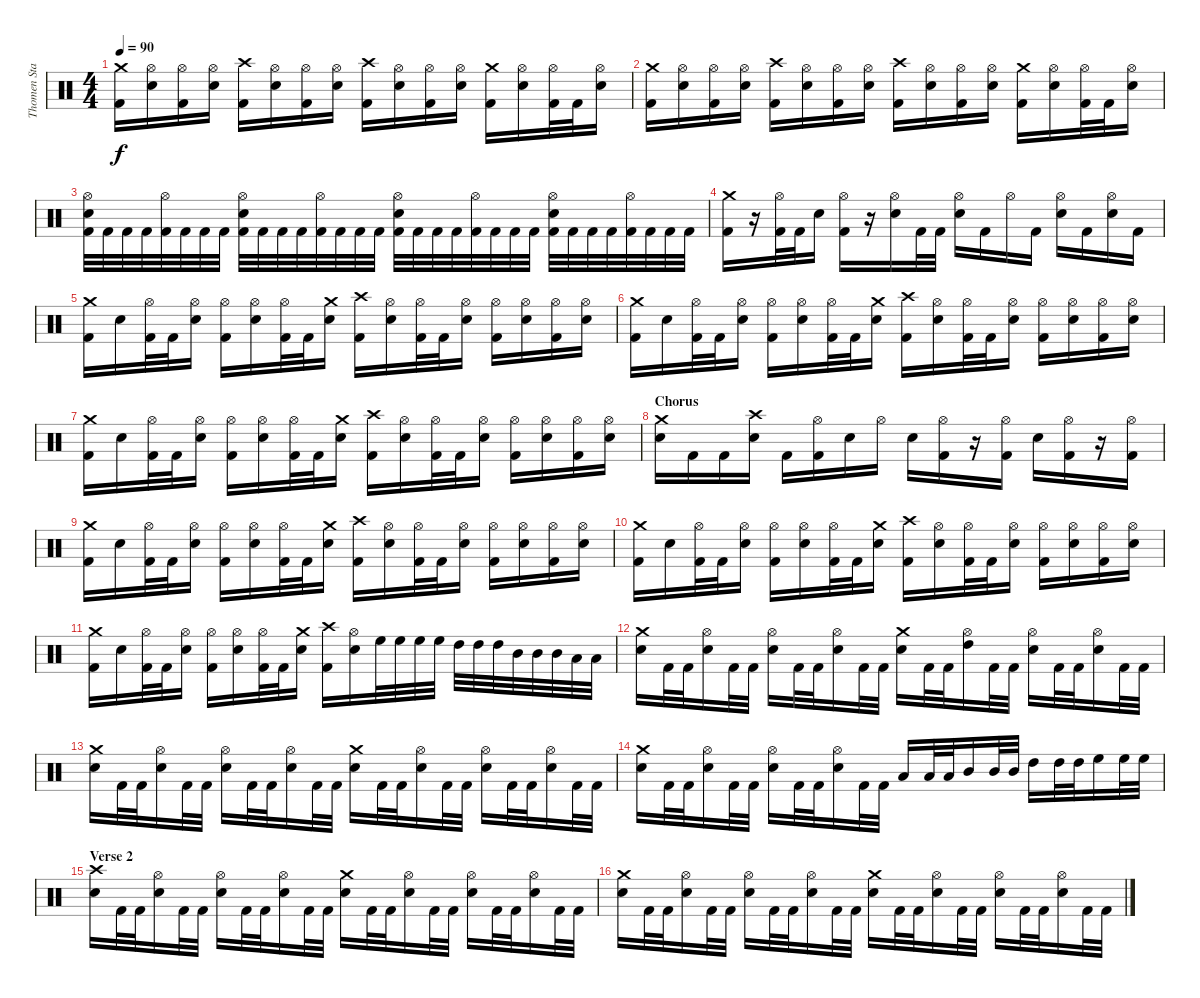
\track ("Thomen Stauch" "Thomen Sta") {instrument percussion}
\staff {score}
\articulation defaults
\ts (4 4)
\tempo 90
\clef neutral
\ks c
("Kick (hit) 2" "Crash medium (hit)").16{dy f} ("Snare (hit) 2" "Hi-Hat (open)").16 ("Kick (hit) 2" "Hi-Hat (open)").16 ("Snare (hit) 2" "Hi-Hat (open)").16 ("Kick (hit) 2" "Crash high (hit)").16 ("Snare (hit) 2" "Hi-Hat (open)").16 ("Kick (hit) 2" "Hi-Hat (open)").16 ("Snare (hit) 2" "Hi-Hat (open)").16 ("Kick (hit) 2" "Crash high (hit)").16 ("Snare (hit) 2" "Hi-Hat (open)").16 ("Kick (hit) 2" "Hi-Hat (open)").16 ("Snare (hit) 2" "Hi-Hat (open)").16 ("Kick (hit) 2" "Crash medium (hit)").16 ("Snare (hit) 2" "Hi-Hat (open)").16 ("Kick (hit) 2" "Hi-Hat (open)").32 "Kick (hit) 2".32 ("Snare (hit) 2" "Hi-Hat (open)").16 |
("Kick (hit) 2" "Crash medium (hit)").16 ("Snare (hit) 2" "Hi-Hat (open)").16 ("Kick (hit) 2" "Hi-Hat (open)").16 ("Snare (hit) 2" "Hi-Hat (open)").16 ("Kick (hit) 2" "Crash high (hit)").16 ("Snare (hit) 2" "Hi-Hat (open)").16 ("Kick (hit) 2" "Hi-Hat (open)").16 ("Snare (hit) 2" "Hi-Hat (open)").16 ("Kick (hit) 2" "Crash high (hit)").16 ("Snare (hit) 2" "Hi-Hat (open)").16 ("Kick (hit) 2" "Hi-Hat (open)").16 ("Snare (hit) 2" "Hi-Hat (open)").16 ("Kick (hit) 2" "Crash medium (hit)").16 ("Snare (hit) 2" "Hi-Hat (open)").16 ("Kick (hit) 2" "Hi-Hat (open)").32 "Kick (hit) 2".32 ("Snare (hit) 2" "Hi-Hat (open)").16 |
("Kick (hit) 2" "Snare (hit) 2" "Hi-Hat (open)").32 "Kick (hit) 2".32 "Kick (hit) 2".32 "Kick (hit) 2".32 ("Kick (hit) 2" "Hi-Hat (open)").32 "Kick (hit) 2".32 "Kick (hit) 2".32 "Kick (hit) 2".32 ("Kick (hit) 2" "Snare (hit) 2" "Hi-Hat (open)").32 "Kick (hit) 2".32 "Kick (hit) 2".32 "Kick (hit) 2".32 ("Kick (hit) 2" "Hi-Hat (open)").32 "Kick (hit) 2".32 "Kick (hit) 2".32 "Kick (hit) 2".32 ("Kick (hit) 2" "Snare (hit) 2" "Hi-Hat (open)").32 "Kick (hit) 2".32 "Kick (hit) 2".32 "Kick (hit) 2".32 ("Kick (hit) 2" "Hi-Hat (open)").32 "Kick (hit) 2".32 "Kick (hit) 2".32 "Kick (hit) 2".32 ("Kick (hit) 2" "Snare (hit) 2" "Hi-Hat (open)").32 "Kick (hit) 2".32 "Kick (hit) 2".32 "Kick (hit) 2".32 ("Kick (hit) 2" "Hi-Hat (open)").32 "Kick (hit) 2".32 "Kick (hit) 2".32 "Kick (hit) 2".32 |
("Kick (hit) 2" "Crash medium (hit)").16 r.16 ("Kick (hit) 2" "Hi-Hat (open)").32 "Kick (hit) 2".32 "Snare (hit) 2".16 ("Kick (hit) 2" "Hi-Hat (open)").16 r.16 ("Snare (hit) 2" "Hi-Hat (open)").16 "Kick (hit) 2".32 "Kick (hit) 2".32 ("Snare (hit) 2" "Hi-Hat (open)").16 "Kick (hit) 2".16 "Hi-Hat (open)".16 "Kick (hit) 2".16 ("Snare (hit) 2" "Hi-Hat (open)").16 "Kick (hit) 2".16 ("Snare (hit) 2" "Hi-Hat (open)").16 "Kick (hit) 2".16 |
("Kick (hit) 2" "Crash medium (hit)").16 "Snare (hit) 2".16 ("Kick (hit) 2" "Hi-Hat (open)").32 "Kick (hit) 2".32 ("Snare (hit) 2" "Hi-Hat (open)").16 ("Kick (hit) 2" "Hi-Hat (open)").16 ("Snare (hit) 2" "Hi-Hat (open)").16 ("Kick (hit) 2" "Hi-Hat (open)").32 "Kick (hit) 2".32 ("Snare (hit) 2" "Crash medium (hit)").16 ("Kick (hit) 2" "Crash high (hit)").16 ("Snare (hit) 2" "Hi-Hat (open)").16 ("Kick (hit) 2" "Hi-Hat (open)").32 "Kick (hit) 2".32 ("Snare (hit) 2" "Hi-Hat (open)").16 ("Kick (hit) 2" "Hi-Hat (open)").16 ("Snare (hit) 2" "Hi-Hat (open)").16 ("Kick (hit) 2" "Hi-Hat (open)").16 ("Snare (hit) 2" "Hi-Hat (open)").16 |
("Kick (hit) 2" "Crash medium (hit)").16 "Snare (hit) 2".16 ("Kick (hit) 2" "Hi-Hat (open)").32 "Kick (hit) 2".32 ("Snare (hit) 2" "Hi-Hat (open)").16 ("Kick (hit) 2" "Hi-Hat (open)").16 ("Snare (hit) 2" "Hi-Hat (open)").16 ("Kick (hit) 2" "Hi-Hat (open)").32 "Kick (hit) 2".32 ("Snare (hit) 2" "Crash medium (hit)").16 ("Kick (hit) 2" "Crash high (hit)").16 ("Snare (hit) 2" "Hi-Hat (open)").16 ("Kick (hit) 2" "Hi-Hat (open)").32 "Kick (hit) 2".32 ("Snare (hit) 2" "Hi-Hat (open)").16 ("Kick (hit) 2" "Hi-Hat (open)").16 ("Snare (hit) 2" "Hi-Hat (open)").16 ("Kick (hit) 2" "Hi-Hat (open)").16 ("Snare (hit) 2" "Hi-Hat (open)").16 |
("Kick (hit) 2" "Crash medium (hit)").16 "Snare (hit) 2".16 ("Kick (hit) 2" "Hi-Hat (open)").32 "Kick (hit) 2".32 ("Snare (hit) 2" "Hi-Hat (open)").16 ("Kick (hit) 2" "Hi-Hat (open)").16 ("Snare (hit) 2" "Hi-Hat (open)").16 ("Kick (hit) 2" "Hi-Hat (open)").32 "Kick (hit) 2".32 ("Snare (hit) 2" "Crash medium (hit)").16 ("Kick (hit) 2" "Crash high (hit)").16 ("Snare (hit) 2" "Hi-Hat (open)").16 ("Kick (hit) 2" "Hi-Hat (open)").32 "Kick (hit) 2".32 ("Snare (hit) 2" "Hi-Hat (open)").16 ("Kick (hit) 2" "Hi-Hat (open)").16 ("Snare (hit) 2" "Hi-Hat (open)").16 ("Kick (hit) 2" "Hi-Hat (open)").16 ("Snare (hit) 2" "Hi-Hat (open)").16 |
\section ("" "Chorus")
("Snare (hit) 2" "Crash medium (hit)").16 "Kick (hit) 2".16 "Kick (hit) 2".16 ("Snare (hit) 2" "Crash high (hit)").16 "Kick (hit) 2".16 ("Kick (hit) 2" "Hi-Hat (open)").16 "Snare (hit) 2".16 "Hi-Hat (open)".16 "Snare (hit) 2".16 ("Kick (hit) 2" "Hi-Hat (open)").16 r.16 ("Kick (hit) 2" "Hi-Hat (open)").16 "Snare (hit) 2".16 ("Kick (hit) 2" "Hi-Hat (open)").16 r.16 ("Kick (hit) 2" "Hi-Hat (open)").16 |
("Kick (hit) 2" "Crash medium (hit)").16 "Snare (hit) 2".16 ("Kick (hit) 2" "Hi-Hat (open)").32 "Kick (hit) 2".32 ("Snare (hit) 2" "Hi-Hat (open)").16 ("Kick (hit) 2" "Hi-Hat (open)").16 ("Snare (hit) 2" "Hi-Hat (open)").16 ("Kick (hit) 2" "Hi-Hat (open)").32 "Kick (hit) 2".32 ("Snare (hit) 2" "Crash medium (hit)").16 ("Kick (hit) 2" "Crash high (hit)").16 ("Snare (hit) 2" "Hi-Hat (open)").16 ("Kick (hit) 2" "Hi-Hat (open)").32 "Kick (hit) 2".32 ("Snare (hit) 2" "Hi-Hat (open)").16 ("Kick (hit) 2" "Hi-Hat (open)").16 ("Snare (hit) 2" "Hi-Hat (open)").16 ("Kick (hit) 2" "Hi-Hat (open)").16 ("Snare (hit) 2" "Hi-Hat (open)").16 |
("Kick (hit) 2" "Crash medium (hit)").16 "Snare (hit) 2".16 ("Kick (hit) 2" "Hi-Hat (open)").32 "Kick (hit) 2".32 ("Snare (hit) 2" "Hi-Hat (open)").16 ("Kick (hit) 2" "Hi-Hat (open)").16 ("Snare (hit) 2" "Hi-Hat (open)").16 ("Kick (hit) 2" "Hi-Hat (open)").32 "Kick (hit) 2".32 ("Snare (hit) 2" "Crash medium (hit)").16 ("Kick (hit) 2" "Crash high (hit)").16 ("Snare (hit) 2" "Hi-Hat (open)").16 ("Kick (hit) 2" "Hi-Hat (open)").32 "Kick (hit) 2".32 ("Snare (hit) 2" "Hi-Hat (open)").16 ("Kick (hit) 2" "Hi-Hat (open)").16 ("Snare (hit) 2" "Hi-Hat (open)").16 ("Kick (hit) 2" "Hi-Hat (open)").16 ("Snare (hit) 2" "Hi-Hat (open)").16 |
("Kick (hit) 2" "Crash medium (hit)").16 "Snare (hit) 2".16 ("Kick (hit) 2" "Hi-Hat (open)").32 "Kick (hit) 2".32 ("Snare (hit) 2" "Hi-Hat (open)").16 ("Kick (hit) 2" "Hi-Hat (open)").16 ("Snare (hit) 2" "Hi-Hat (open)").16 ("Kick (hit) 2" "Hi-Hat (open)").32 "Kick (hit) 2".32 ("Snare (hit) 2" "Crash medium (hit)").16 ("Kick (hit) 2" "Crash high (hit)").16 ("Snare (hit) 2" "Hi-Hat (open)").16 "High Floor Tom (hit)".32 "High Floor Tom (hit)".32 "High Floor Tom (hit)".32 "High Floor Tom (hit)".32 "High Tom (hit)".32 "High Tom (hit)".32 "High Tom (hit)".32 "Mid Tom (hit)".32 "Mid Tom (hit)".32 "Mid Tom (hit)".32 "Low Tom (hit)".32 "Low Tom (hit)".32 |
("Snare (hit) 2" "Crash medium (hit)").16 "Kick (hit) 2".32 "Kick (hit) 2".32 ("Snare (hit) 2" "Hi-Hat (open)").16 "Kick (hit) 2".32 "Kick (hit) 2".32 ("Snare (hit) 2" "Hi-Hat (open)").16 "Kick (hit) 2".32 "Kick (hit) 2".32 ("Snare (hit) 2" "Hi-Hat (open)").16 "Kick (hit) 2".32 "Kick (hit) 2".32 ("Snare (hit) 2" "Crash medium (hit)").16 "Kick (hit) 2".32 "Kick (hit) 2".32 ("High Tom (hit)" "Hi-Hat (open)").16 "Kick (hit) 2".32 "Kick (hit) 2".32 ("Snare (hit) 2" "Hi-Hat (open)").16 "Kick (hit) 2".32 "Kick (hit) 2".32 ("Snare (hit) 2" "Hi-Hat (open)").16 "Kick (hit) 2".32 "Kick (hit) 2".32 |
("Snare (hit) 2" "Crash medium (hit)").16 "Kick (hit) 2".32 "Kick (hit) 2".32 ("Snare (hit) 2" "Hi-Hat (open)").16 "Kick (hit) 2".32 "Kick (hit) 2".32 ("Snare (hit) 2" "Hi-Hat (open)").16 "Kick (hit) 2".32 "Kick (hit) 2".32 ("Snare (hit) 2" "Hi-Hat (open)").16 "Kick (hit) 2".32 "Kick (hit) 2".32 ("Snare (hit) 2" "Crash medium (hit)").16 "Kick (hit) 2".32 "Kick (hit) 2".32 ("Snare (hit) 2" "Hi-Hat (open)").16 "Kick (hit) 2".32 "Kick (hit) 2".32 ("Snare (hit) 2" "Hi-Hat (open)").16 "Kick (hit) 2".32 "Kick (hit) 2".32 ("Snare (hit) 2" "Hi-Hat (open)").16 "Kick (hit) 2".32 "Kick (hit) 2".32 |
("Snare (hit) 2" "Crash medium (hit)").16 "Kick (hit) 2".32 "Kick (hit) 2".32 ("Snare (hit) 2" "Hi-Hat (open)").16 "Kick (hit) 2".32 "Kick (hit) 2".32 ("Snare (hit) 2" "Hi-Hat (open)").16 "Kick (hit) 2".32 "Kick (hit) 2".32 ("Snare (hit) 2" "Hi-Hat (open)").16 "Kick (hit) 2".32 "Kick (hit) 2".32 "Low Tom (hit)".16 "Low Tom (hit)".32 "Low Tom (hit)".32 "Mid Tom (hit)".16 "Mid Tom (hit)".32 "Mid Tom (hit)".32 "High Tom (hit)".16 "High Tom (hit)".32 "High Tom (hit)".32 "High Floor Tom (hit)".16 "High Floor Tom (hit)".32 "High Floor Tom (hit)".32 |
\section ("" "Verse 2")
("Snare (hit) 2" "Crash high (hit)").16 "Kick (hit) 2".32 "Kick (hit) 2".32 ("Snare (hit) 2" "Hi-Hat (open)").16 "Kick (hit) 2".32 "Kick (hit) 2".32 ("Snare (hit) 2" "Hi-Hat (open)").16 "Kick (hit) 2".32 "Kick (hit) 2".32 ("Snare (hit) 2" "Hi-Hat (open)").16 "Kick (hit) 2".32 "Kick (hit) 2".32 ("Snare (hit) 2" "Crash medium (hit)").16 "Kick (hit) 2".32 "Kick (hit) 2".32 ("Snare (hit) 2" "Hi-Hat (open)").16 "Kick (hit) 2".32 "Kick (hit) 2".32 ("Snare (hit) 2" "Hi-Hat (open)").16 "Kick (hit) 2".32 "Kick (hit) 2".32 ("Snare (hit) 2" "Hi-Hat (open)").16 "Kick (hit) 2".32 "Kick (hit) 2".32 |
("Snare (hit) 2" "Crash medium (hit)").16 "Kick (hit) 2".32 "Kick (hit) 2".32 ("Snare (hit) 2" "Hi-Hat (open)").16 "Kick (hit) 2".32 "Kick (hit) 2".32 ("Snare (hit) 2" "Hi-Hat (open)").16 "Kick (hit) 2".32 "Kick (hit) 2".32 ("Snare (hit) 2" "Hi-Hat (open)").16 "Kick (hit) 2".32 "Kick (hit) 2".32 ("Snare (hit) 2" "Crash medium (hit)").16 "Kick (hit) 2".32 "Kick (hit) 2".32 ("Snare (hit) 2" "Hi-Hat (open)").16 "Kick (hit) 2".32 "Kick (hit) 2".32 ("Snare (hit) 2" "Hi-Hat (open)").16 "Kick (hit) 2".32 "Kick (hit) 2".32 ("Snare (hit) 2" "Hi-Hat (open)").16 "Kick (hit) 2".32 "Kick (hit) 2".32
